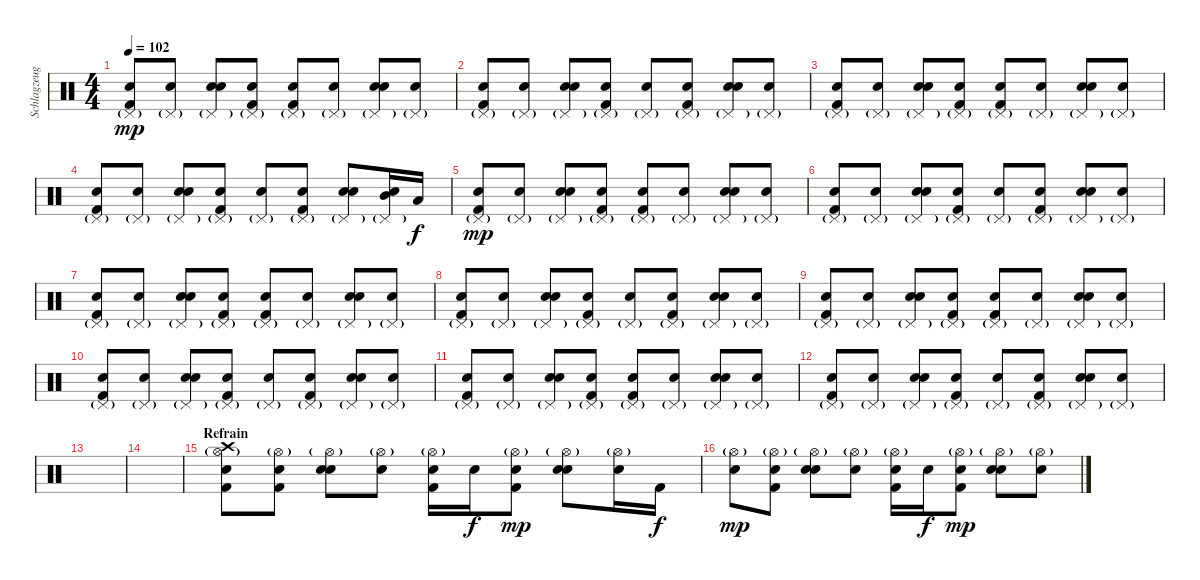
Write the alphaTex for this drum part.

\track ("Schlagzeug" "Schlagzeug") {instrument percussion}
\staff {score}
\articulation defaults
\ts (4 4)
\tempo 102
\clef neutral
\ks c
("Kick (hit) 2" "Pedal Hi-Hat (hit)"{g} "Snare (hit)").8{dy mp} ("Pedal Hi-Hat (hit)"{g} "Snare (hit)").8 ("Snare (hit) 2" "Pedal Hi-Hat (hit)"{g} "Snare (hit)").8 ("Kick (hit) 2" "Pedal Hi-Hat (hit)"{g} "Snare (hit)").8 ("Kick (hit) 2" "Pedal Hi-Hat (hit)"{g} "Snare (hit)").8 ("Pedal Hi-Hat (hit)"{g} "Snare (hit)").8 ("Snare (hit) 2" "Pedal Hi-Hat (hit)"{g} "Snare (hit)").8 ("Pedal Hi-Hat (hit)"{g} "Snare (hit)").8 |
("Kick (hit) 2" "Pedal Hi-Hat (hit)"{g} "Snare (hit)").8 ("Pedal Hi-Hat (hit)"{g} "Snare (hit)").8 ("Snare (hit) 2" "Pedal Hi-Hat (hit)"{g} "Snare (hit)").8 ("Kick (hit) 2" "Pedal Hi-Hat (hit)"{g} "Snare (hit)").8 ("Pedal Hi-Hat (hit)"{g} "Snare (hit)").8 ("Kick (hit) 2" "Pedal Hi-Hat (hit)"{g} "Snare (hit)").8 ("Snare (hit) 2" "Pedal Hi-Hat (hit)"{g} "Snare (hit)").8 ("Pedal Hi-Hat (hit)"{g} "Snare (hit)").8 |
("Kick (hit) 2" "Pedal Hi-Hat (hit)"{g} "Snare (hit)").8 ("Pedal Hi-Hat (hit)"{g} "Snare (hit)").8 ("Snare (hit) 2" "Pedal Hi-Hat (hit)"{g} "Snare (hit)").8 ("Kick (hit) 2" "Pedal Hi-Hat (hit)"{g} "Snare (hit)").8 ("Kick (hit) 2" "Pedal Hi-Hat (hit)"{g} "Snare (hit)").8 ("Pedal Hi-Hat (hit)"{g} "Snare (hit)").8 ("Snare (hit) 2" "Pedal Hi-Hat (hit)"{g} "Snare (hit)").8 ("Pedal Hi-Hat (hit)"{g} "Snare (hit)").8 |
("Kick (hit) 2" "Pedal Hi-Hat (hit)"{g} "Snare (hit)").8 ("Pedal Hi-Hat (hit)"{g} "Snare (hit)").8 ("Snare (hit) 2" "Pedal Hi-Hat (hit)"{g} "Snare (hit)").8 ("Kick (hit) 2" "Pedal Hi-Hat (hit)"{g} "Snare (hit)").8 ("Pedal Hi-Hat (hit)"{g} "Snare (hit)").8 ("Kick (hit) 2" "Pedal Hi-Hat (hit)"{g} "Snare (hit)").8 ("Snare (hit) 2" "Pedal Hi-Hat (hit)"{g} "Snare (hit)").8 ("Mid Tom (hit)" "Pedal Hi-Hat (hit)"{g} "Snare (hit)").16 "Low Tom (hit)".16{dy f} |
("Kick (hit) 2" "Pedal Hi-Hat (hit)"{g} "Snare (hit)").8{dy mp} ("Pedal Hi-Hat (hit)"{g} "Snare (hit)").8 ("Snare (hit) 2" "Pedal Hi-Hat (hit)"{g} "Snare (hit)").8 ("Kick (hit) 2" "Pedal Hi-Hat (hit)"{g} "Snare (hit)").8 ("Kick (hit) 2" "Pedal Hi-Hat (hit)"{g} "Snare (hit)").8 ("Pedal Hi-Hat (hit)"{g} "Snare (hit)").8 ("Snare (hit) 2" "Pedal Hi-Hat (hit)"{g} "Snare (hit)").8 ("Pedal Hi-Hat (hit)"{g} "Snare (hit)").8 |
("Kick (hit) 2" "Pedal Hi-Hat (hit)"{g} "Snare (hit)").8 ("Pedal Hi-Hat (hit)"{g} "Snare (hit)").8 ("Snare (hit) 2" "Pedal Hi-Hat (hit)"{g} "Snare (hit)").8 ("Kick (hit) 2" "Pedal Hi-Hat (hit)"{g} "Snare (hit)").8 ("Pedal Hi-Hat (hit)"{g} "Snare (hit)").8 ("Kick (hit) 2" "Pedal Hi-Hat (hit)"{g} "Snare (hit)").8 ("Snare (hit) 2" "Pedal Hi-Hat (hit)"{g} "Snare (hit)").8 ("Pedal Hi-Hat (hit)"{g} "Snare (hit)").8 |
("Kick (hit) 2" "Pedal Hi-Hat (hit)"{g} "Snare (hit)").8 ("Pedal Hi-Hat (hit)"{g} "Snare (hit)").8 ("Snare (hit) 2" "Pedal Hi-Hat (hit)"{g} "Snare (hit)").8 ("Kick (hit) 2" "Pedal Hi-Hat (hit)"{g} "Snare (hit)").8 ("Kick (hit) 2" "Pedal Hi-Hat (hit)"{g} "Snare (hit)").8 ("Pedal Hi-Hat (hit)"{g} "Snare (hit)").8 ("Snare (hit) 2" "Pedal Hi-Hat (hit)"{g} "Snare (hit)").8 ("Pedal Hi-Hat (hit)"{g} "Snare (hit)").8 |
("Kick (hit) 2" "Pedal Hi-Hat (hit)"{g} "Snare (hit)").8 ("Pedal Hi-Hat (hit)"{g} "Snare (hit)").8 ("Snare (hit) 2" "Pedal Hi-Hat (hit)"{g} "Snare (hit)").8 ("Kick (hit) 2" "Pedal Hi-Hat (hit)"{g} "Snare (hit)").8 ("Pedal Hi-Hat (hit)"{g} "Snare (hit)").8 ("Kick (hit) 2" "Pedal Hi-Hat (hit)"{g} "Snare (hit)").8 ("Snare (hit) 2" "Pedal Hi-Hat (hit)"{g} "Snare (hit)").8 ("Pedal Hi-Hat (hit)"{g} "Snare (hit)").8 |
("Kick (hit) 2" "Pedal Hi-Hat (hit)"{g} "Snare (hit)").8 ("Pedal Hi-Hat (hit)"{g} "Snare (hit)").8 ("Snare (hit) 2" "Pedal Hi-Hat (hit)"{g} "Snare (hit)").8 ("Kick (hit) 2" "Pedal Hi-Hat (hit)"{g} "Snare (hit)").8 ("Kick (hit) 2" "Pedal Hi-Hat (hit)"{g} "Snare (hit)").8 ("Pedal Hi-Hat (hit)"{g} "Snare (hit)").8 ("Snare (hit) 2" "Pedal Hi-Hat (hit)"{g} "Snare (hit)").8 ("Pedal Hi-Hat (hit)"{g} "Snare (hit)").8 |
("Kick (hit) 2" "Pedal Hi-Hat (hit)"{g} "Snare (hit)").8 ("Pedal Hi-Hat (hit)"{g} "Snare (hit)").8 ("Snare (hit) 2" "Pedal Hi-Hat (hit)"{g} "Snare (hit)").8 ("Kick (hit) 2" "Pedal Hi-Hat (hit)"{g} "Snare (hit)").8 ("Pedal Hi-Hat (hit)"{g} "Snare (hit)").8 ("Kick (hit) 2" "Pedal Hi-Hat (hit)"{g} "Snare (hit)").8 ("Snare (hit) 2" "Pedal Hi-Hat (hit)"{g} "Snare (hit)").8 ("Pedal Hi-Hat (hit)"{g} "Snare (hit)").8 |
("Kick (hit) 2" "Pedal Hi-Hat (hit)"{g} "Snare (hit)").8 ("Pedal Hi-Hat (hit)"{g} "Snare (hit)").8 ("Snare (hit) 2" "Pedal Hi-Hat (hit)"{g} "Snare (hit)").8 ("Kick (hit) 2" "Pedal Hi-Hat (hit)"{g} "Snare (hit)").8 ("Kick (hit) 2" "Pedal Hi-Hat (hit)"{g} "Snare (hit)").8 ("Pedal Hi-Hat (hit)"{g} "Snare (hit)").8 ("Snare (hit) 2" "Pedal Hi-Hat (hit)"{g} "Snare (hit)").8 ("Pedal Hi-Hat (hit)"{g} "Snare (hit)").8 |
("Kick (hit) 2" "Pedal Hi-Hat (hit)"{g} "Snare (hit)").8 ("Pedal Hi-Hat (hit)"{g} "Snare (hit)").8 ("Snare (hit) 2" "Pedal Hi-Hat (hit)"{g} "Snare (hit)").8 ("Kick (hit) 2" "Pedal Hi-Hat (hit)"{g} "Snare (hit)").8 ("Pedal Hi-Hat (hit)"{g} "Snare (hit)").8 ("Kick (hit) 2" "Pedal Hi-Hat (hit)"{g} "Snare (hit)").8 ("Snare (hit) 2" "Pedal Hi-Hat (hit)"{g} "Snare (hit)").8 ("Pedal Hi-Hat (hit)"{g} "Snare (hit)").8 |
|
|
\section ("" "Refrain")
("Kick (hit) 2" "Crash high (hit)" "Hi-Hat (open)"{g} "Snare (hit)").8 ("Kick (hit) 2" "Hi-Hat (open)"{g} "Snare (hit)").8 ("Snare (hit) 2" "Hi-Hat (open)"{g} "Snare (hit)").8 ("Hi-Hat (open)"{g} "Snare (hit)").8 ("Kick (hit) 2" "Hi-Hat (open)"{g} "Snare (hit)").16 "Snare (hit) 2".16{dy f} ("Kick (hit) 2" "Hi-Hat (open)"{g} "Snare (hit)").8{dy mp} ("Snare (hit) 2" "Hi-Hat (open)"{g} "Snare (hit)").8 ("Hi-Hat (open)"{g} "Snare (hit)").16 "Kick (hit) 2".16{dy f} |
("Hi-Hat (open)"{g} "Snare (hit)").8{dy mp} ("Kick (hit) 2" "Hi-Hat (open)"{g} "Snare (hit)").8 ("Snare (hit) 2" "Hi-Hat (open)"{g} "Snare (hit)").8 ("Hi-Hat (open)"{g} "Snare (hit)").8 ("Kick (hit) 2" "Hi-Hat (open)"{g} "Snare (hit)").16 "Snare (hit) 2".16{dy f} ("Kick (hit) 2" "Hi-Hat (open)"{g} "Snare (hit)").8{dy mp} ("Snare (hit) 2" "Hi-Hat (open)"{g} "Snare (hit)").8 ("Hi-Hat (open)"{g} "Snare (hit)").8
